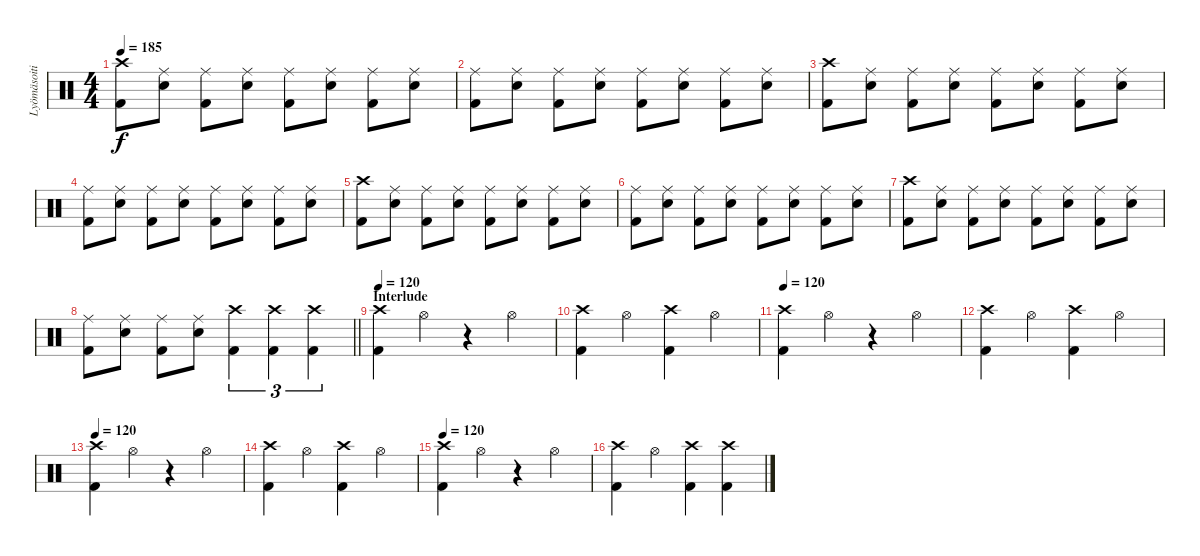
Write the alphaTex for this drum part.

\track ("Lyömäsoitin" "Lyömäsoiti") {instrument percussion}
\staff {score}
\articulation defaults
\ts (4 4)
\tempo 185
\clef neutral
\ks c
("Crash high (hit)" "Kick (hit) 2").8{dy f} ("Ride (middle)" "Electric Snare (hit)").8 ("Ride (middle)" "Kick (hit) 2").8 ("Ride (middle)" "Electric Snare (hit)").8 ("Ride (middle)" "Kick (hit) 2").8 ("Ride (middle)" "Electric Snare (hit)").8 ("Ride (middle)" "Kick (hit) 2").8 ("Ride (middle)" "Electric Snare (hit)").8 |
("Ride (middle)" "Kick (hit) 2").8 ("Ride (middle)" "Electric Snare (hit)").8 ("Ride (middle)" "Kick (hit) 2").8 ("Ride (middle)" "Electric Snare (hit)").8 ("Ride (middle)" "Kick (hit) 2").8 ("Ride (middle)" "Electric Snare (hit)").8 ("Ride (middle)" "Kick (hit) 2").8 ("Ride (middle)" "Electric Snare (hit)").8 |
("Crash high (hit)" "Kick (hit) 2").8 ("Ride (middle)" "Electric Snare (hit)").8 ("Ride (middle)" "Kick (hit) 2").8 ("Ride (middle)" "Electric Snare (hit)").8 ("Ride (middle)" "Kick (hit) 2").8 ("Ride (middle)" "Electric Snare (hit)").8 ("Ride (middle)" "Kick (hit) 2").8 ("Ride (middle)" "Electric Snare (hit)").8 |
("Ride (middle)" "Kick (hit) 2").8 ("Ride (middle)" "Electric Snare (hit)").8 ("Ride (middle)" "Kick (hit) 2").8 ("Ride (middle)" "Electric Snare (hit)").8 ("Ride (middle)" "Kick (hit) 2").8 ("Ride (middle)" "Electric Snare (hit)").8 ("Ride (middle)" "Kick (hit) 2").8 ("Ride (middle)" "Electric Snare (hit)").8 |
("Crash high (hit)" "Kick (hit) 2").8 ("Ride (middle)" "Electric Snare (hit)").8 ("Ride (middle)" "Kick (hit) 2").8 ("Ride (middle)" "Electric Snare (hit)").8 ("Ride (middle)" "Kick (hit) 2").8 ("Ride (middle)" "Electric Snare (hit)").8 ("Ride (middle)" "Kick (hit) 2").8 ("Ride (middle)" "Electric Snare (hit)").8 |
("Ride (middle)" "Kick (hit) 2").8 ("Ride (middle)" "Electric Snare (hit)").8 ("Ride (middle)" "Kick (hit) 2").8 ("Ride (middle)" "Electric Snare (hit)").8 ("Ride (middle)" "Kick (hit) 2").8 ("Ride (middle)" "Electric Snare (hit)").8 ("Ride (middle)" "Kick (hit) 2").8 ("Ride (middle)" "Electric Snare (hit)").8 |
("Crash high (hit)" "Kick (hit) 2").8 ("Ride (middle)" "Electric Snare (hit)").8 ("Ride (middle)" "Kick (hit) 2").8 ("Ride (middle)" "Electric Snare (hit)").8 ("Ride (middle)" "Kick (hit) 2").8 ("Ride (middle)" "Electric Snare (hit)").8 ("Ride (middle)" "Kick (hit) 2").8 ("Ride (middle)" "Electric Snare (hit)").8 |
\barLineRight lightlight
("Ride (middle)" "Kick (hit) 2").8 ("Ride (middle)" "Electric Snare (hit)").8 ("Ride (middle)" "Kick (hit) 2").8 ("Ride (middle)" "Electric Snare (hit)").8 ("Crash high (hit)" "Kick (hit) 2").4{tu (3 2)} ("Crash high (hit)" "Kick (hit) 2").4{tu (3 2)} ("Crash high (hit)" "Kick (hit) 2").4{tu (3 2)} |
\section ("" "Interlude")
\tempo 120
("Crash high (hit)" "Kick (hit) 2").4 "Hi-Hat (open)".4 r.4 "Hi-Hat (open)".4 |
("Crash high (hit)" "Kick (hit) 2").4 "Hi-Hat (open)".4 ("Crash high (hit)" "Kick (hit) 2").4 "Hi-Hat (open)".4 |
\tempo 120
("Crash high (hit)" "Kick (hit) 2").4 "Hi-Hat (open)".4 r.4 "Hi-Hat (open)".4 |
("Crash high (hit)" "Kick (hit) 2").4 "Hi-Hat (open)".4 ("Crash high (hit)" "Kick (hit) 2").4 "Hi-Hat (open)".4 |
\tempo 120
("Crash high (hit)" "Kick (hit) 2").4 "Hi-Hat (open)".4 r.4 "Hi-Hat (open)".4 |
("Crash high (hit)" "Kick (hit) 2").4 "Hi-Hat (open)".4 ("Crash high (hit)" "Kick (hit) 2").4 "Hi-Hat (open)".4 |
\tempo 120
("Crash high (hit)" "Kick (hit) 2").4 "Hi-Hat (open)".4 r.4 "Hi-Hat (open)".4 |
("Crash high (hit)" "Kick (hit) 2").4 "Hi-Hat (open)".4 ("Crash high (hit)" "Kick (hit) 2").4 ("Crash high (hit)" "Kick (hit) 2").4
